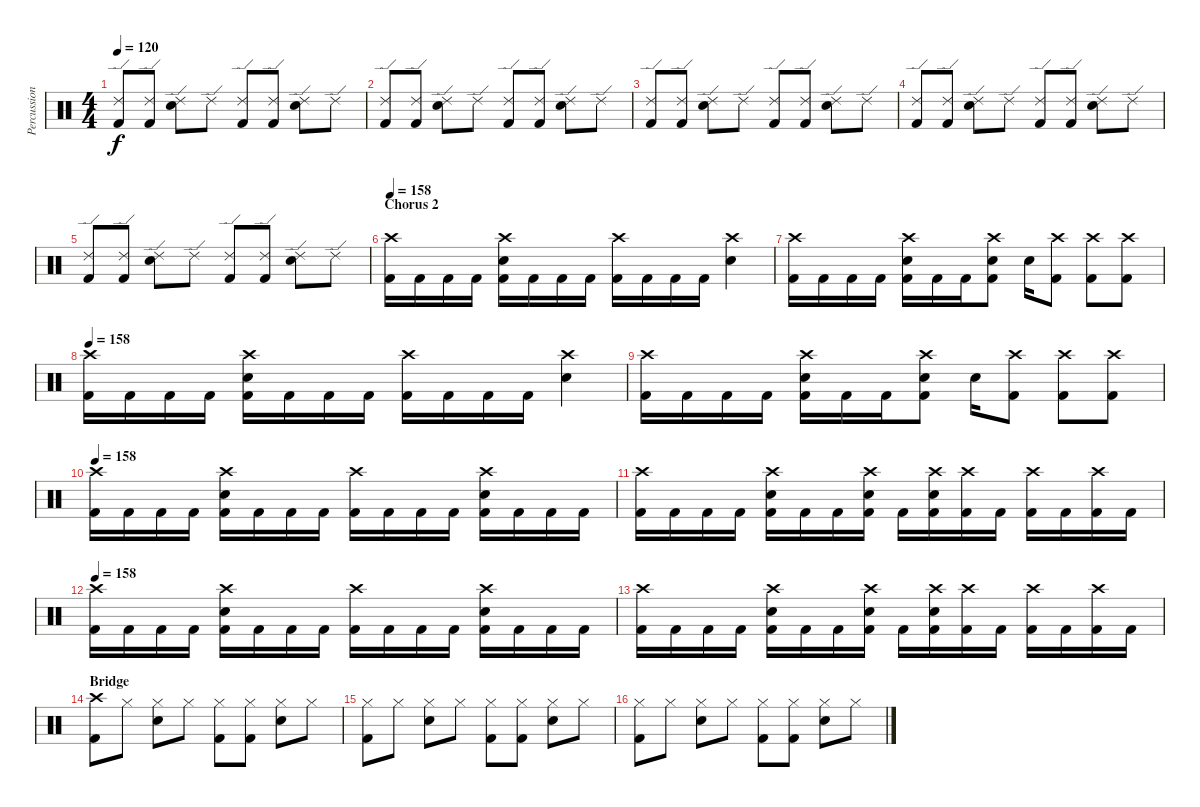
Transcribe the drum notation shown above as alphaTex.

\track ("Percussion" "Percussion") {instrument percussion}
\staff {score}
\articulation defaults
\ts (4 4)
\tempo 120
\clef neutral
\ks c
("Ride (edge) 2" "Kick (hit) 2").8{dy f} ("Ride (edge) 2" "Kick (hit) 2").8 ("Ride (edge) 2" "Snare (hit) 2").8 "Ride (edge) 2".8 ("Ride (edge) 2" "Kick (hit) 2").8 ("Ride (edge) 2" "Kick (hit) 2").8 ("Ride (edge) 2" "Snare (hit) 2").8 "Ride (edge) 2".8 |
("Ride (edge) 2" "Kick (hit) 2").8 ("Ride (edge) 2" "Kick (hit) 2").8 ("Ride (edge) 2" "Snare (hit) 2").8 "Ride (edge) 2".8 ("Ride (edge) 2" "Kick (hit) 2").8 ("Ride (edge) 2" "Kick (hit) 2").8 ("Ride (edge) 2" "Snare (hit) 2").8 "Ride (edge) 2".8 |
("Ride (edge) 2" "Kick (hit) 2").8 ("Ride (edge) 2" "Kick (hit) 2").8 ("Ride (edge) 2" "Snare (hit) 2").8 "Ride (edge) 2".8 ("Ride (edge) 2" "Kick (hit) 2").8 ("Ride (edge) 2" "Kick (hit) 2").8 ("Ride (edge) 2" "Snare (hit) 2").8 "Ride (edge) 2".8 |
("Ride (edge) 2" "Kick (hit) 2").8 ("Ride (edge) 2" "Kick (hit) 2").8 ("Ride (edge) 2" "Snare (hit) 2").8 "Ride (edge) 2".8 ("Ride (edge) 2" "Kick (hit) 2").8 ("Ride (edge) 2" "Kick (hit) 2").8 ("Ride (edge) 2" "Snare (hit) 2").8 "Ride (edge) 2".8 |
("Ride (edge) 2" "Kick (hit) 2").8 ("Ride (edge) 2" "Kick (hit) 2").8 ("Ride (edge) 2" "Snare (hit) 2").8 "Ride (edge) 2".8 ("Ride (edge) 2" "Kick (hit) 2").8 ("Ride (edge) 2" "Kick (hit) 2").8 ("Ride (edge) 2" "Snare (hit) 2").8 "Ride (edge) 2".8 |
\section ("" "Chorus 2")
\tempo 158
("Crash high (hit)" "Kick (hit) 2").16 "Kick (hit) 2".16 "Kick (hit) 2".16 "Kick (hit) 2".16 ("Crash high (hit)" "Snare (hit) 2" "Kick (hit) 2").16 "Kick (hit) 2".16 "Kick (hit) 2".16 "Kick (hit) 2".16 ("Crash high (hit)" "Kick (hit) 2").16 "Kick (hit) 2".16 "Kick (hit) 2".16 "Kick (hit) 2".16 ("Crash high (hit)" "Snare (hit) 2").4 |
("Crash high (hit)" "Kick (hit) 2").16 "Kick (hit) 2".16 "Kick (hit) 2".16 "Kick (hit) 2".16 ("Crash high (hit)" "Snare (hit) 2" "Kick (hit) 2").16 "Kick (hit) 2".16 "Kick (hit) 2".16 ("Crash high (hit)" "Snare (hit) 2" "Kick (hit) 2").8 "Snare (hit) 2".16 ("Crash high (hit)" "Kick (hit) 2").8 ("Crash high (hit)" "Kick (hit) 2").8 ("Crash high (hit)" "Kick (hit) 2").8 |
\tempo 158
("Crash high (hit)" "Kick (hit) 2").16 "Kick (hit) 2".16 "Kick (hit) 2".16 "Kick (hit) 2".16 ("Crash high (hit)" "Snare (hit) 2" "Kick (hit) 2").16 "Kick (hit) 2".16 "Kick (hit) 2".16 "Kick (hit) 2".16 ("Crash high (hit)" "Kick (hit) 2").16 "Kick (hit) 2".16 "Kick (hit) 2".16 "Kick (hit) 2".16 ("Crash high (hit)" "Snare (hit) 2").4 |
("Crash high (hit)" "Kick (hit) 2").16 "Kick (hit) 2".16 "Kick (hit) 2".16 "Kick (hit) 2".16 ("Crash high (hit)" "Snare (hit) 2" "Kick (hit) 2").16 "Kick (hit) 2".16 "Kick (hit) 2".16 ("Crash high (hit)" "Snare (hit) 2" "Kick (hit) 2").8 "Snare (hit) 2".16 ("Crash high (hit)" "Kick (hit) 2").8 ("Crash high (hit)" "Kick (hit) 2").8 ("Crash high (hit)" "Kick (hit) 2").8 |
\tempo 158
("Crash high (hit)" "Kick (hit) 2").16 "Kick (hit) 2".16 "Kick (hit) 2".16 "Kick (hit) 2".16 ("Crash high (hit)" "Snare (hit) 2" "Kick (hit) 2").16 "Kick (hit) 2".16 "Kick (hit) 2".16 "Kick (hit) 2".16 ("Crash high (hit)" "Kick (hit) 2").16 "Kick (hit) 2".16 "Kick (hit) 2".16 "Kick (hit) 2".16 ("Crash high (hit)" "Snare (hit) 2" "Kick (hit) 2").16 "Kick (hit) 2".16 "Kick (hit) 2".16 "Kick (hit) 2".16 |
("Crash high (hit)" "Kick (hit) 2").16 "Kick (hit) 2".16 "Kick (hit) 2".16 "Kick (hit) 2".16 ("Crash high (hit)" "Snare (hit) 2" "Kick (hit) 2").16 "Kick (hit) 2".16 "Kick (hit) 2".16 ("Crash high (hit)" "Snare (hit) 2" "Kick (hit) 2").16 "Kick (hit) 2".16 ("Crash high (hit)" "Snare (hit) 2" "Kick (hit) 2").16 ("Crash high (hit)" "Kick (hit) 2").16 "Kick (hit) 2".16 ("Crash high (hit)" "Kick (hit) 2").16 "Kick (hit) 2".16 ("Crash high (hit)" "Kick (hit) 2").16 "Kick (hit) 2".16 |
\tempo 158
("Crash high (hit)" "Kick (hit) 2").16 "Kick (hit) 2".16 "Kick (hit) 2".16 "Kick (hit) 2".16 ("Crash high (hit)" "Snare (hit) 2" "Kick (hit) 2").16 "Kick (hit) 2".16 "Kick (hit) 2".16 "Kick (hit) 2".16 ("Crash high (hit)" "Kick (hit) 2").16 "Kick (hit) 2".16 "Kick (hit) 2".16 "Kick (hit) 2".16 ("Crash high (hit)" "Snare (hit) 2" "Kick (hit) 2").16 "Kick (hit) 2".16 "Kick (hit) 2".16 "Kick (hit) 2".16 |
("Crash high (hit)" "Kick (hit) 2").16 "Kick (hit) 2".16 "Kick (hit) 2".16 "Kick (hit) 2".16 ("Crash high (hit)" "Snare (hit) 2" "Kick (hit) 2").16 "Kick (hit) 2".16 "Kick (hit) 2".16 ("Crash high (hit)" "Snare (hit) 2" "Kick (hit) 2").16 "Kick (hit) 2".16 ("Crash high (hit)" "Snare (hit) 2" "Kick (hit) 2").16 ("Crash high (hit)" "Kick (hit) 2").16 "Kick (hit) 2".16 ("Crash high (hit)" "Kick (hit) 2").16 "Kick (hit) 2".16 ("Crash high (hit)" "Kick (hit) 2").16 "Kick (hit) 2".16 |
\section ("" "Bridge")
("Crash high (hit)" "Kick (hit) 2").8 "Hi-Hat (closed)".8 ("Hi-Hat (closed)" "Snare (hit) 2").8 "Hi-Hat (closed)".8 ("Hi-Hat (closed)" "Kick (hit) 2").8 ("Hi-Hat (closed)" "Kick (hit) 2").8 ("Hi-Hat (closed)" "Snare (hit) 2").8 "Hi-Hat (closed)".8 |
("Hi-Hat (closed)" "Kick (hit) 2").8 "Hi-Hat (closed)".8 ("Hi-Hat (closed)" "Snare (hit) 2").8 "Hi-Hat (closed)".8 ("Hi-Hat (closed)" "Kick (hit) 2").8 ("Hi-Hat (closed)" "Kick (hit) 2").8 ("Hi-Hat (closed)" "Snare (hit) 2").8 "Hi-Hat (closed)".8 |
("Hi-Hat (closed)" "Kick (hit) 2").8 "Hi-Hat (closed)".8 ("Hi-Hat (closed)" "Snare (hit) 2").8 "Hi-Hat (closed)".8 ("Hi-Hat (closed)" "Kick (hit) 2").8 ("Hi-Hat (closed)" "Kick (hit) 2").8 ("Hi-Hat (closed)" "Snare (hit) 2").8 "Hi-Hat (closed)".8
